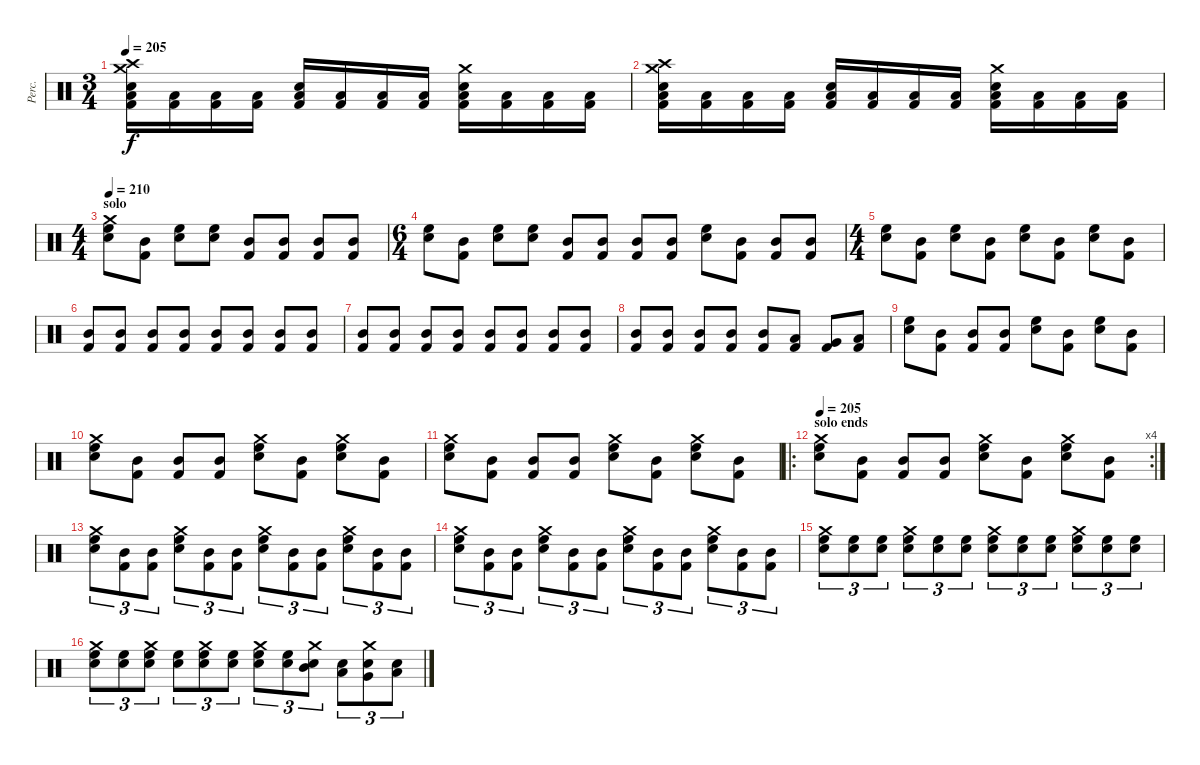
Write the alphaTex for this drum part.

\track ("Perc." "Perc.") {instrument percussion}
\staff {score}
\articulation defaults
\ts (3 4)
\tempo 205
\clef neutral
\ks c
("Crash high (hit)" "Crash medium (hit)" "Snare (hit) 2" "Low Floor Tom (hit)" "Kick (hit) 2").16{dy f} ("Low Floor Tom (hit)" "Kick (hit) 2").16 ("Low Floor Tom (hit)" "Kick (hit) 2").16 ("Low Floor Tom (hit)" "Kick (hit) 2").16 ("Snare (hit) 2" "Low Floor Tom (hit)" "Kick (hit) 2").16 ("Low Floor Tom (hit)" "Kick (hit) 2").16 ("Low Floor Tom (hit)" "Kick (hit) 2").16 ("Low Floor Tom (hit)" "Kick (hit) 2").16 ("Crash medium (hit)" "Snare (hit) 2" "Low Floor Tom (hit)" "Kick (hit) 2").16 ("Low Floor Tom (hit)" "Kick (hit) 2").16 ("Low Floor Tom (hit)" "Kick (hit) 2").16 ("Low Floor Tom (hit)" "Kick (hit) 2").16 |
("Crash high (hit)" "Crash medium (hit)" "Snare (hit) 2" "Low Floor Tom (hit)" "Kick (hit) 2").16 ("Low Floor Tom (hit)" "Kick (hit) 2").16 ("Low Floor Tom (hit)" "Kick (hit) 2").16 ("Low Floor Tom (hit)" "Kick (hit) 2").16 ("Snare (hit) 2" "Low Floor Tom (hit)" "Kick (hit) 2").16 ("Low Floor Tom (hit)" "Kick (hit) 2").16 ("Low Floor Tom (hit)" "Kick (hit) 2").16 ("Low Floor Tom (hit)" "Kick (hit) 2").16 ("Crash medium (hit)" "Snare (hit) 2" "Low Floor Tom (hit)" "Kick (hit) 2").16 ("Low Floor Tom (hit)" "Kick (hit) 2").16 ("Low Floor Tom (hit)" "Kick (hit) 2").16 ("Low Floor Tom (hit)" "Kick (hit) 2").16 |
\ts (4 4)
\section ("" "solo")
\tempo 210
("Crash medium (hit)" "High Floor Tom (hit)" "Snare (hit) 2").8 ("Mid Tom (hit)" "Kick (hit) 2").8 ("High Floor Tom (hit)" "Snare (hit) 2").8 ("High Floor Tom (hit)" "Snare (hit) 2").8 ("Mid Tom (hit)" "Kick (hit) 2").8 ("Mid Tom (hit)" "Kick (hit) 2").8 ("Mid Tom (hit)" "Kick (hit) 2").8 ("Mid Tom (hit)" "Kick (hit) 2").8 |
\ts (6 4)
("High Floor Tom (hit)" "Snare (hit) 2").8 ("Mid Tom (hit)" "Kick (hit) 2").8 ("High Floor Tom (hit)" "Snare (hit) 2").8 ("High Floor Tom (hit)" "Snare (hit) 2").8 ("Mid Tom (hit)" "Kick (hit) 2").8 ("Mid Tom (hit)" "Kick (hit) 2").8 ("Mid Tom (hit)" "Kick (hit) 2").8 ("Mid Tom (hit)" "Kick (hit) 2").8 ("High Floor Tom (hit)" "Snare (hit) 2").8 ("Mid Tom (hit)" "Kick (hit) 2").8 ("Mid Tom (hit)" "Kick (hit) 2").8 ("Mid Tom (hit)" "Kick (hit) 2").8 |
\ts (4 4)
("High Floor Tom (hit)" "Snare (hit) 2").8 ("Mid Tom (hit)" "Kick (hit) 2").8 ("High Floor Tom (hit)" "Snare (hit) 2").8 ("Mid Tom (hit)" "Kick (hit) 2").8 ("High Floor Tom (hit)" "Snare (hit) 2").8 ("Mid Tom (hit)" "Kick (hit) 2").8 ("High Floor Tom (hit)" "Snare (hit) 2").8 ("Mid Tom (hit)" "Kick (hit) 2").8 |
("Mid Tom (hit)" "Kick (hit) 2").8 ("Mid Tom (hit)" "Kick (hit) 2").8 ("Mid Tom (hit)" "Kick (hit) 2").8 ("Mid Tom (hit)" "Kick (hit) 2").8 ("Mid Tom (hit)" "Kick (hit) 2").8 ("Mid Tom (hit)" "Kick (hit) 2").8 ("Mid Tom (hit)" "Kick (hit) 2").8 ("Mid Tom (hit)" "Kick (hit) 2").8 |
("Mid Tom (hit)" "Kick (hit) 2").8 ("Mid Tom (hit)" "Kick (hit) 2").8 ("Mid Tom (hit)" "Kick (hit) 2").8 ("Mid Tom (hit)" "Kick (hit) 2").8 ("Mid Tom (hit)" "Kick (hit) 2").8 ("Mid Tom (hit)" "Kick (hit) 2").8 ("Mid Tom (hit)" "Kick (hit) 2").8 ("Mid Tom (hit)" "Kick (hit) 2").8 |
("Mid Tom (hit)" "Kick (hit) 2").8 ("Mid Tom (hit)" "Kick (hit) 2").8 ("Mid Tom (hit)" "Kick (hit) 2").8 ("Mid Tom (hit)" "Kick (hit) 2").8 ("Mid Tom (hit)" "Kick (hit) 2").8 ("Low Tom (hit)" "Kick (hit) 2").8 ("Very Low Tom (hit)" "Kick (hit) 2").8 ("Low Floor Tom (hit)" "Kick (hit) 2").8 |
("High Floor Tom (hit)" "Snare (hit) 2").8 ("Mid Tom (hit)" "Kick (hit) 2").8 ("Mid Tom (hit)" "Kick (hit) 2").8 ("Mid Tom (hit)" "Kick (hit) 2").8 ("High Floor Tom (hit)" "Snare (hit) 2").8 ("Mid Tom (hit)" "Kick (hit) 2").8 ("High Floor Tom (hit)" "Snare (hit) 2").8 ("Mid Tom (hit)" "Kick (hit) 2").8 |
("Crash medium (hit)" "High Floor Tom (hit)" "Snare (hit) 2").8 ("Mid Tom (hit)" "Kick (hit) 2").8 ("Mid Tom (hit)" "Kick (hit) 2").8 ("Mid Tom (hit)" "Kick (hit) 2").8 ("Crash medium (hit)" "High Floor Tom (hit)" "Snare (hit) 2").8 ("Mid Tom (hit)" "Kick (hit) 2").8 ("Crash medium (hit)" "High Floor Tom (hit)" "Snare (hit) 2").8 ("Mid Tom (hit)" "Kick (hit) 2").8 |
("Crash medium (hit)" "High Floor Tom (hit)" "Snare (hit) 2").8 ("Mid Tom (hit)" "Kick (hit) 2").8 ("Mid Tom (hit)" "Kick (hit) 2").8 ("Mid Tom (hit)" "Kick (hit) 2").8 ("Crash medium (hit)" "High Floor Tom (hit)" "Snare (hit) 2").8 ("Mid Tom (hit)" "Kick (hit) 2").8 ("Crash medium (hit)" "High Floor Tom (hit)" "Snare (hit) 2").8 ("Mid Tom (hit)" "Kick (hit) 2").8 |
\ro
\rc 4
\section ("" "solo ends")
\tempo 205
("Crash medium (hit)" "High Floor Tom (hit)" "Snare (hit) 2").8 ("Mid Tom (hit)" "Kick (hit) 2").8 ("Mid Tom (hit)" "Kick (hit) 2").8 ("Mid Tom (hit)" "Kick (hit) 2").8 ("Crash medium (hit)" "High Floor Tom (hit)" "Snare (hit) 2").8 ("Mid Tom (hit)" "Kick (hit) 2").8 ("Crash medium (hit)" "High Floor Tom (hit)" "Snare (hit) 2").8 ("Mid Tom (hit)" "Kick (hit) 2").8 |
("Crash medium (hit)" "High Floor Tom (hit)" "Snare (hit) 2").8{tu (3 2)} ("Mid Tom (hit)" "Kick (hit) 2").8{tu (3 2)} ("Mid Tom (hit)" "Kick (hit) 2").8{tu (3 2)} ("Crash medium (hit)" "High Floor Tom (hit)" "Snare (hit) 2").8{tu (3 2)} ("Mid Tom (hit)" "Kick (hit) 2").8{tu (3 2)} ("Mid Tom (hit)" "Kick (hit) 2").8{tu (3 2)} ("Crash medium (hit)" "High Floor Tom (hit)" "Snare (hit) 2").8{tu (3 2)} ("Mid Tom (hit)" "Kick (hit) 2").8{tu (3 2)} ("Mid Tom (hit)" "Kick (hit) 2").8{tu (3 2)} ("Crash medium (hit)" "High Floor Tom (hit)" "Snare (hit) 2").8{tu (3 2)} ("Mid Tom (hit)" "Kick (hit) 2").8{tu (3 2)} ("Mid Tom (hit)" "Kick (hit) 2").8{tu (3 2)} |
("Crash medium (hit)" "High Floor Tom (hit)" "Snare (hit) 2").8{tu (3 2)} ("Mid Tom (hit)" "Kick (hit) 2").8{tu (3 2)} ("Mid Tom (hit)" "Kick (hit) 2").8{tu (3 2)} ("Crash medium (hit)" "High Floor Tom (hit)" "Snare (hit) 2").8{tu (3 2)} ("Mid Tom (hit)" "Kick (hit) 2").8{tu (3 2)} ("Mid Tom (hit)" "Kick (hit) 2").8{tu (3 2)} ("Crash medium (hit)" "High Floor Tom (hit)" "Snare (hit) 2").8{tu (3 2)} ("Mid Tom (hit)" "Kick (hit) 2").8{tu (3 2)} ("Mid Tom (hit)" "Kick (hit) 2").8{tu (3 2)} ("Crash medium (hit)" "High Floor Tom (hit)" "Snare (hit) 2").8{tu (3 2)} ("Mid Tom (hit)" "Kick (hit) 2").8{tu (3 2)} ("Mid Tom (hit)" "Kick (hit) 2").8{tu (3 2)} |
("Crash medium (hit)" "High Floor Tom (hit)" "Snare (hit) 2").8{tu (3 2)} ("High Floor Tom (hit)" "Snare (hit) 2").8{tu (3 2)} ("High Floor Tom (hit)" "Snare (hit) 2").8{tu (3 2)} ("Crash medium (hit)" "High Floor Tom (hit)" "Snare (hit) 2").8{tu (3 2)} ("High Floor Tom (hit)" "Snare (hit) 2").8{tu (3 2)} ("High Floor Tom (hit)" "Snare (hit) 2").8{tu (3 2)} ("Crash medium (hit)" "High Floor Tom (hit)" "Snare (hit) 2").8{tu (3 2)} ("High Floor Tom (hit)" "Snare (hit) 2").8{tu (3 2)} ("High Floor Tom (hit)" "Snare (hit) 2").8{tu (3 2)} ("Crash medium (hit)" "High Floor Tom (hit)" "Snare (hit) 2").8{tu (3 2)} ("High Floor Tom (hit)" "Snare (hit) 2").8{tu (3 2)} ("High Floor Tom (hit)" "Snare (hit) 2").8{tu (3 2)} |
("Crash medium (hit)" "High Floor Tom (hit)" "Snare (hit) 2").8{tu (3 2)} ("High Floor Tom (hit)" "Snare (hit) 2").8{tu (3 2)} ("Crash medium (hit)" "High Floor Tom (hit)" "Snare (hit) 2").8{tu (3 2)} ("High Floor Tom (hit)" "Snare (hit) 2").8{tu (3 2)} ("Crash medium (hit)" "High Floor Tom (hit)" "Snare (hit) 2").8{tu (3 2)} ("High Floor Tom (hit)" "Snare (hit) 2").8{tu (3 2)} ("Crash medium (hit)" "High Floor Tom (hit)" "Snare (hit) 2").8{tu (3 2)} ("High Floor Tom (hit)" "Snare (hit) 2").8{tu (3 2)} ("Crash medium (hit)" "Mid Tom (hit)" "Snare (hit) 2").8{tu (3 2)} ("Low Tom (hit)" "Snare (hit) 2").8{tu (3 2)} ("Crash medium (hit)" "Very Low Tom (hit)" "Snare (hit) 2").8{tu (3 2)} ("Low Floor Tom (hit)" "Snare (hit) 2").8{tu (3 2)}
